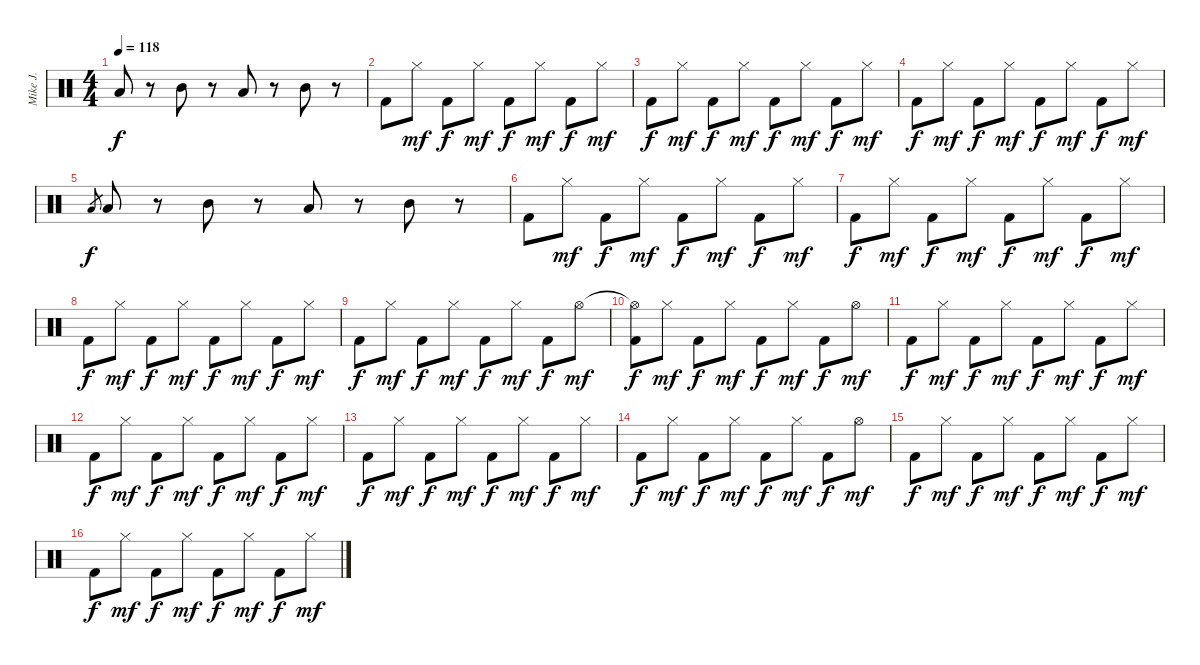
\track ("Mike J." "Mike J.") {instrument percussion}
\staff {score}
\articulation defaults
\ts (4 4)
\tempo 118
\clef neutral
\ks c "Low Floor Tom (hit)".8{dy f volume 13}
r.8 "Mid Tom (hit)".8 r.8 "Low Tom (hit)".8 r.8 "Mid Tom (hit)".8 r.8 |
"Kick (hit) 2".8 "Hi-Hat (closed)".8{dy mf} "Kick (hit) 2".8{dy f} "Hi-Hat (closed)".8{dy mf} "Kick (hit) 2".8{dy f} "Hi-Hat (closed)".8{dy mf} "Kick (hit) 2".8{dy f} "Hi-Hat (closed)".8{dy mf} |
"Kick (hit) 2".8{dy f} "Hi-Hat (closed)".8{dy mf} "Kick (hit) 2".8{dy f} "Hi-Hat (closed)".8{dy mf} "Kick (hit) 2".8{dy f} "Hi-Hat (closed)".8{dy mf} "Kick (hit) 2".8{dy f} "Hi-Hat (closed)".8{dy mf} |
"Kick (hit) 2".8{dy f} "Hi-Hat (closed)".8{dy mf} "Kick (hit) 2".8{dy f} "Hi-Hat (closed)".8{dy mf} "Kick (hit) 2".8{dy f} "Hi-Hat (closed)".8{dy mf} "Kick (hit) 2".8{dy f} "Hi-Hat (closed)".8{dy mf} |
"Low Floor Tom (hit)".8{gr dy f} "Low Floor Tom (hit)".8 r.8 "Mid Tom (hit)".8 r.8 "Low Tom (hit)".8 r.8 "Mid Tom (hit)".8 r.8 |
"Kick (hit) 2".8 "Hi-Hat (closed)".8{dy mf} "Kick (hit) 2".8{dy f} "Hi-Hat (closed)".8{dy mf} "Kick (hit) 2".8{dy f} "Hi-Hat (closed)".8{dy mf} "Kick (hit) 2".8{dy f} "Hi-Hat (closed)".8{dy mf} |
"Kick (hit) 2".8{dy f} "Hi-Hat (closed)".8{dy mf} "Kick (hit) 2".8{dy f} "Hi-Hat (closed)".8{dy mf} "Kick (hit) 2".8{dy f} "Hi-Hat (closed)".8{dy mf} "Kick (hit) 2".8{dy f} "Hi-Hat (closed)".8{dy mf} |
"Kick (hit) 2".8{dy f} "Hi-Hat (closed)".8{dy mf} "Kick (hit) 2".8{dy f} "Hi-Hat (closed)".8{dy mf} "Kick (hit) 2".8{dy f} "Hi-Hat (closed)".8{dy mf} "Kick (hit) 2".8{dy f} "Hi-Hat (closed)".8{dy mf} |
"Kick (hit) 2".8{dy f} "Hi-Hat (closed)".8{dy mf} "Kick (hit) 2".8{dy f} "Hi-Hat (closed)".8{dy mf} "Kick (hit) 2".8{dy f} "Hi-Hat (closed)".8{dy mf} "Kick (hit) 2".8{dy f} "Hi-Hat (open)".8{dy mf} |
("Hi-Hat (open)"{t} "Kick (hit) 2").8{dy f} "Hi-Hat (closed)".8{dy mf volume 13} "Kick (hit) 2".8{dy f} "Hi-Hat (closed)".8{dy mf} "Kick (hit) 2".8{dy f} "Hi-Hat (closed)".8{dy mf} "Kick (hit) 2".8{dy f} "Hi-Hat (open)".8{dy mf} |
"Kick (hit) 2".8{dy f} "Hi-Hat (closed)".8{dy mf} "Kick (hit) 2".8{dy f} "Hi-Hat (closed)".8{dy mf} "Kick (hit) 2".8{dy f} "Hi-Hat (closed)".8{dy mf} "Kick (hit) 2".8{dy f} "Hi-Hat (closed)".8{dy mf} |
"Kick (hit) 2".8{dy f} "Hi-Hat (closed)".8{dy mf} "Kick (hit) 2".8{dy f} "Hi-Hat (closed)".8{dy mf} "Kick (hit) 2".8{dy f} "Hi-Hat (closed)".8{dy mf} "Kick (hit) 2".8{dy f} "Hi-Hat (closed)".8{dy mf} |
"Kick (hit) 2".8{dy f} "Hi-Hat (closed)".8{dy mf} "Kick (hit) 2".8{dy f} "Hi-Hat (closed)".8{dy mf} "Kick (hit) 2".8{dy f} "Hi-Hat (closed)".8{dy mf} "Kick (hit) 2".8{dy f} "Hi-Hat (closed)".8{dy mf} |
"Kick (hit) 2".8{dy f} "Hi-Hat (closed)".8{dy mf} "Kick (hit) 2".8{dy f} "Hi-Hat (closed)".8{dy mf} "Kick (hit) 2".8{dy f} "Hi-Hat (closed)".8{dy mf} "Kick (hit) 2".8{dy f} "Hi-Hat (open)".8{dy mf} |
"Kick (hit) 2".8{dy f} "Hi-Hat (closed)".8{dy mf} "Kick (hit) 2".8{dy f} "Hi-Hat (closed)".8{dy mf} "Kick (hit) 2".8{dy f} "Hi-Hat (closed)".8{dy mf} "Kick (hit) 2".8{dy f} "Hi-Hat (closed)".8{dy mf} |
"Kick (hit) 2".8{dy f} "Hi-Hat (closed)".8{dy mf} "Kick (hit) 2".8{dy f} "Hi-Hat (closed)".8{dy mf} "Kick (hit) 2".8{dy f} "Hi-Hat (closed)".8{dy mf} "Kick (hit) 2".8{dy f} "Hi-Hat (closed)".8{dy mf}
